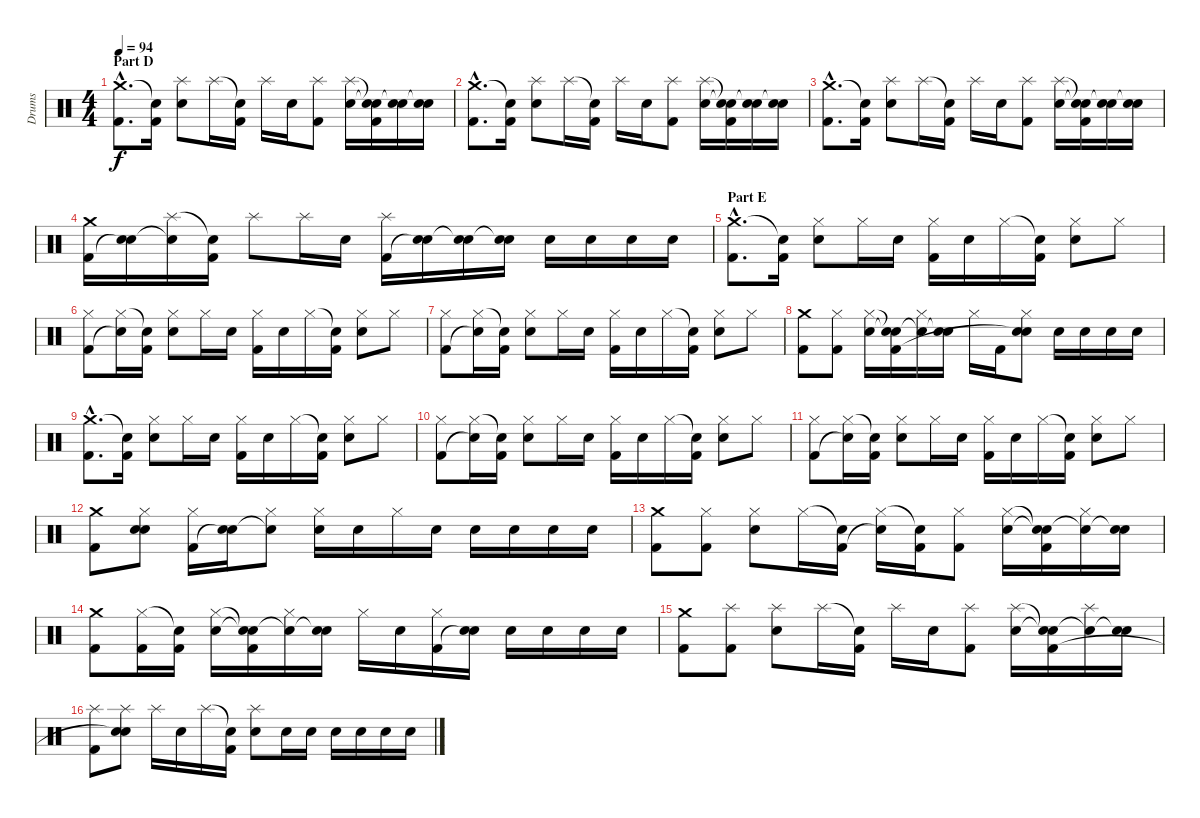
\track ("Drums" "Drums") {instrument percussion}
\staff {score}
\articulation defaults
\ts (4 4)
\section ("" "Part D")
\tempo 94
\clef neutral
\ks c
("Crash medium (hit)"{hac} "Kick (hit) 2"{hac}).8{d dy f} ("Snare (hit)"{t} "Kick (hit) 2").16 ("Splash (hit)" "Electric Snare (hit)").8 "Splash (hit)".16 ("Snare (hit)"{t} "Kick (hit) 2").16 "Splash (hit)".16 "Electric Snare (hit)".16 ("Splash (hit)" "Kick (hit) 2").8 ("Splash (hit)" "Electric Snare (hit)").16 ("Snare (hit)"{t} "Snare (hit)"{t} "Kick (hit) 2").16 ("Electric Snare (hit)" "Snare (hit)"{t}).16 ("Electric Snare (hit)" "Snare (hit)"{t}).16 |
("Crash medium (hit)"{hac} "Kick (hit) 2"{hac}).8{d} ("Snare (hit)"{t} "Kick (hit) 2").16 ("Splash (hit)" "Electric Snare (hit)").8 "Splash (hit)".16 ("Snare (hit)"{t} "Kick (hit) 2").16 "Splash (hit)".16 "Electric Snare (hit)".16 ("Splash (hit)" "Kick (hit) 2").8 ("Splash (hit)" "Electric Snare (hit)").16 ("Snare (hit)"{t} "Snare (hit)"{t} "Kick (hit) 2").16 ("Electric Snare (hit)" "Snare (hit)"{t}).16 ("Electric Snare (hit)" "Snare (hit)"{t}).16 |
("Crash medium (hit)"{hac} "Kick (hit) 2"{hac}).8{d} ("Snare (hit)"{t} "Kick (hit) 2").16 ("Splash (hit)" "Electric Snare (hit)").8 "Splash (hit)".16 ("Snare (hit)"{t} "Kick (hit) 2").16 "Splash (hit)".16 "Electric Snare (hit)".16 ("Splash (hit)" "Kick (hit) 2").8 ("Splash (hit)" "Electric Snare (hit)").16 ("Snare (hit)"{t} "Snare (hit)"{t} "Kick (hit) 2").16 ("Electric Snare (hit)" "Snare (hit)"{t}).16 ("Electric Snare (hit)" "Snare (hit)"{t}).16 |
("Crash medium (hit)" "Kick (hit) 2").16 ("Electric Snare (hit)" "Snare (hit)"{t}).16 ("Splash (hit)" "Snare (hit)"{t}).16 ("Snare (hit)"{t} "Kick (hit) 2").16 "Splash (hit)".8 "Splash (hit)".16 "Electric Snare (hit)".16 ("Splash (hit)" "Kick (hit) 2").16 ("Electric Snare (hit)" "Snare (hit)"{t}).16 ("Electric Snare (hit)" "Snare (hit)"{t}).16 ("Electric Snare (hit)" "Snare (hit)"{t}).16 "Electric Snare (hit)".16 "Electric Snare (hit)".16 "Electric Snare (hit)".16 "Electric Snare (hit)".16 |
\section ("" "Part E")
("Crash medium (hit)"{hac} "Kick (hit) 2"{hac}).8{d} ("Snare (hit)"{t} "Kick (hit) 2").16 ("Hi-Hat (closed)" "Electric Snare (hit)").8 "Hi-Hat (closed)".16 "Electric Snare (hit)".16 ("Hi-Hat (closed)" "Kick (hit) 2").16 "Electric Snare (hit)".16 "Hi-Hat (closed)".16 ("Snare (hit)"{t} "Kick (hit) 2").16 ("Hi-Hat (closed)" "Electric Snare (hit)").8 "Hi-Hat (closed)".8 |
("Hi-Hat (closed)" "Kick (hit) 2").8 ("Hi-Hat (closed)" "Snare (hit)"{t}).16 ("Snare (hit)"{t} "Kick (hit) 2").16 ("Hi-Hat (closed)" "Electric Snare (hit)").8 "Hi-Hat (closed)".16 "Electric Snare (hit)".16 ("Hi-Hat (closed)" "Kick (hit) 2").16 "Electric Snare (hit)".16 "Hi-Hat (closed)".16 ("Snare (hit)"{t} "Kick (hit) 2").16 ("Hi-Hat (closed)" "Electric Snare (hit)").8 "Hi-Hat (closed)".8 |
("Hi-Hat (closed)" "Kick (hit) 2").8 ("Hi-Hat (closed)" "Snare (hit)"{t}).16 ("Snare (hit)"{t} "Kick (hit) 2").16 ("Hi-Hat (closed)" "Electric Snare (hit)").8 "Hi-Hat (closed)".16 "Electric Snare (hit)".16 ("Hi-Hat (closed)" "Kick (hit) 2").16 "Electric Snare (hit)".16 "Hi-Hat (closed)".16 ("Snare (hit)"{t} "Kick (hit) 2").16 ("Hi-Hat (closed)" "Electric Snare (hit)").8 "Hi-Hat (closed)".8 |
("Crash medium (hit)" "Kick (hit) 2").8 ("Hi-Hat (closed)" "Kick (hit) 2").8 ("Hi-Hat (closed)" "Electric Snare (hit)").16 ("Snare (hit)"{t} "Snare (hit)"{t} "Kick (hit) 2").16 ("Hi-Hat (closed)" "Snare (hit)"{t}).16 ("Electric Snare (hit)" "Snare (hit)"{t}).16 "Hi-Hat (closed)".16 "Kick (hit) 2".16 ("Hi-Hat (closed)" "Electric Snare (hit)" "Snare (hit)"{t}).8 "Electric Snare (hit)".16 "Electric Snare (hit)".16 "Electric Snare (hit)".16 "Electric Snare (hit)".16 |
("Crash medium (hit)"{hac} "Kick (hit) 2"{hac}).8{d} ("Snare (hit)"{t} "Kick (hit) 2").16 ("Hi-Hat (closed)" "Electric Snare (hit)").8 "Hi-Hat (closed)".16 "Electric Snare (hit)".16 ("Hi-Hat (closed)" "Kick (hit) 2").16 "Electric Snare (hit)".16 "Hi-Hat (closed)".16 ("Snare (hit)"{t} "Kick (hit) 2").16 ("Hi-Hat (closed)" "Electric Snare (hit)").8 "Hi-Hat (closed)".8 |
("Hi-Hat (closed)" "Kick (hit) 2").8 ("Hi-Hat (closed)" "Snare (hit)"{t}).16 ("Snare (hit)"{t} "Kick (hit) 2").16 ("Hi-Hat (closed)" "Electric Snare (hit)").8 "Hi-Hat (closed)".16 "Electric Snare (hit)".16 ("Hi-Hat (closed)" "Kick (hit) 2").16 "Electric Snare (hit)".16 "Hi-Hat (closed)".16 ("Snare (hit)"{t} "Kick (hit) 2").16 ("Hi-Hat (closed)" "Electric Snare (hit)").8 "Hi-Hat (closed)".8 |
("Hi-Hat (closed)" "Kick (hit) 2").8 ("Hi-Hat (closed)" "Snare (hit)"{t}).16 ("Snare (hit)"{t} "Kick (hit) 2").16 ("Hi-Hat (closed)" "Electric Snare (hit)").8 "Hi-Hat (closed)".16 "Electric Snare (hit)".16 ("Hi-Hat (closed)" "Kick (hit) 2").16 "Electric Snare (hit)".16 "Hi-Hat (closed)".16 ("Snare (hit)"{t} "Kick (hit) 2").16 ("Hi-Hat (closed)" "Electric Snare (hit)").8 "Hi-Hat (closed)".8 |
("Crash medium (hit)" "Kick (hit) 2").8 ("Hi-Hat (closed)" "Electric Snare (hit)" "Snare (hit)").8 ("Hi-Hat (closed)" "Kick (hit) 2").16 ("Electric Snare (hit)" "Snare (hit)"{t}).16 ("Hi-Hat (closed)" "Snare (hit)"{t}).8 ("Hi-Hat (closed)" "Electric Snare (hit)").16 "Electric Snare (hit)".16 "Hi-Hat (closed)".16 "Electric Snare (hit)".16 "Electric Snare (hit)".16 "Electric Snare (hit)".16 "Electric Snare (hit)".16 "Electric Snare (hit)".16 |
("Crash medium (hit)" "Kick (hit) 2").8 ("Hi-Hat (closed)" "Kick (hit) 2").8 ("Hi-Hat (closed)" "Electric Snare (hit)").8 "Hi-Hat (closed)".16 ("Snare (hit)"{t} "Kick (hit) 2").16 ("Hi-Hat (closed)" "Snare (hit)"{t}).16 ("Snare (hit)"{t} "Kick (hit) 2").16 ("Hi-Hat (closed)" "Kick (hit) 2").8 ("Hi-Hat (closed)" "Electric Snare (hit)").16 ("Snare (hit)"{t} "Snare (hit)"{t} "Kick (hit) 2").16 ("Hi-Hat (closed)" "Snare (hit)"{t}).16 ("Electric Snare (hit)" "Snare (hit)"{t}).16 |
("Crash medium (hit)" "Kick (hit) 2").8 ("Hi-Hat (closed)" "Kick (hit) 2").16 ("Snare (hit)"{t} "Kick (hit) 2").16 ("Hi-Hat (closed)" "Electric Snare (hit)").16 ("Snare (hit)"{t} "Snare (hit)"{t} "Kick (hit) 2").16 ("Hi-Hat (closed)" "Snare (hit)"{t}).16 ("Electric Snare (hit)" "Snare (hit)"{t}).16 "Hi-Hat (closed)".16 "Electric Snare (hit)".16 ("Hi-Hat (closed)" "Kick (hit) 2").16 ("Electric Snare (hit)" "Snare (hit)"{t}).16 "Electric Snare (hit)".16 "Electric Snare (hit)".16 "Electric Snare (hit)".16 "Electric Snare (hit)".16 |
("Crash medium (hit)" "Kick (hit) 2").8 ("Splash (hit)" "Kick (hit) 2").8 ("Splash (hit)" "Electric Snare (hit)").8 "Splash (hit)".16 ("Snare (hit)"{t} "Kick (hit) 2").16 "Splash (hit)".16 "Electric Snare (hit)".16 ("Splash (hit)" "Kick (hit) 2").8 ("Splash (hit)" "Electric Snare (hit)").16 ("Snare (hit)"{t} "Snare (hit)"{t} "Kick (hit) 2").16 ("Splash (hit)" "Snare (hit)"{t}).16 ("Electric Snare (hit)" "Snare (hit)"{t}).16 |
("Splash (hit)" "Kick (hit) 2").8 ("Splash (hit)" "Electric Snare (hit)" "Snare (hit)"{t}).8 "Splash (hit)".16 "Electric Snare (hit)".16 "Splash (hit)".16 ("Snare (hit)"{t} "Kick (hit) 2").16 ("Splash (hit)" "Electric Snare (hit)").8 "Electric Snare (hit)".16 "Electric Snare (hit)".16 "Electric Snare (hit)".16 "Electric Snare (hit)".16 "Electric Snare (hit)".16 "Electric Snare (hit)".16
